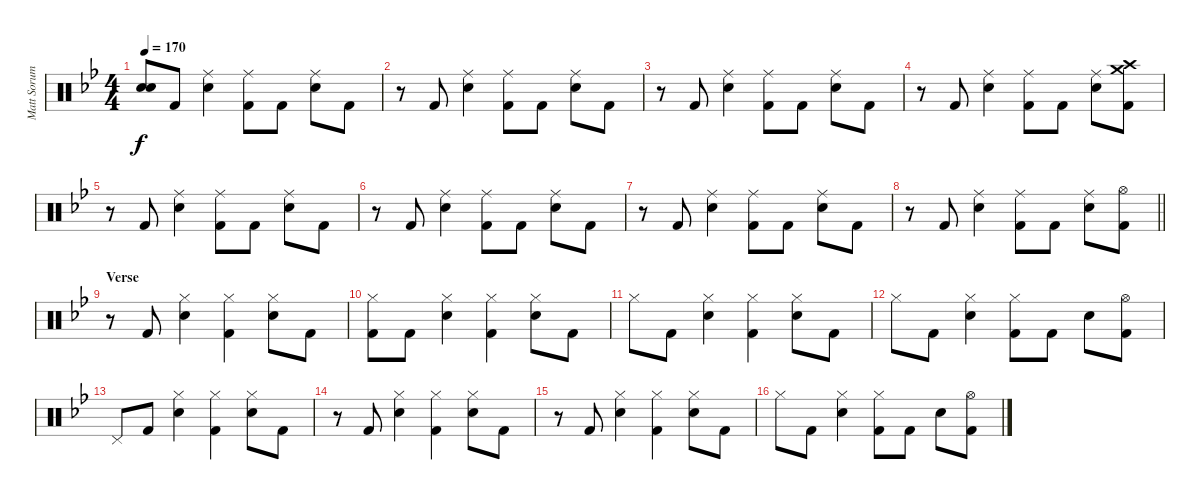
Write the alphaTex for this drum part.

\track ("Matt Sorum - Drums" "Matt Sorum") {instrument percussion}
\staff {score}
\articulation defaults
\ts (4 4)
\tempo 170
\clef neutral
\ks bb
("Snare (hit)"{t} "Snare (hit)"{t}).8{dy f} "Kick (hit) 2".8 ("Ride (middle)" "Snare (hit) 2").4 ("Ride (middle)" "Kick (hit) 2").8 "Kick (hit) 2".8 ("Ride (middle)" "Snare (hit) 2").8 "Kick (hit) 2".8 |
r.8 "Kick (hit) 2".8 ("Ride (middle)" "Snare (hit) 2").4 ("Ride (middle)" "Kick (hit) 2").8 "Kick (hit) 2".8 ("Ride (middle)" "Snare (hit) 2").8 "Kick (hit) 2".8 |
r.8 "Kick (hit) 2".8 ("Ride (middle)" "Snare (hit) 2").4 ("Ride (middle)" "Kick (hit) 2").8 "Kick (hit) 2".8 ("Ride (middle)" "Snare (hit) 2").8 "Kick (hit) 2".8 |
r.8 "Kick (hit) 2".8 ("Ride (middle)" "Snare (hit) 2").4 ("Ride (middle)" "Kick (hit) 2").8 "Kick (hit) 2".8 ("Ride (middle)" "Snare (hit) 2").8 ("Crash medium (hit)" "Crash high (hit)" "Kick (hit) 2").8 |
r.8 "Kick (hit) 2".8 ("Ride (middle)" "Snare (hit) 2").4 ("Ride (middle)" "Kick (hit) 2").8 "Kick (hit) 2".8 ("Ride (middle)" "Snare (hit) 2").8 "Kick (hit) 2".8 |
r.8 "Kick (hit) 2".8 ("Ride (middle)" "Snare (hit) 2").4 ("Ride (middle)" "Kick (hit) 2").8 "Kick (hit) 2".8 ("Ride (middle)" "Snare (hit) 2").8 "Kick (hit) 2".8 |
r.8 "Kick (hit) 2".8 ("Ride (middle)" "Snare (hit) 2").4 ("Ride (middle)" "Kick (hit) 2").8 "Kick (hit) 2".8 ("Ride (middle)" "Snare (hit) 2").8 "Kick (hit) 2".8 |
\barLineRight lightlight
r.8 "Kick (hit) 2".8 ("Ride (middle)" "Snare (hit) 2").4 ("Ride (middle)" "Kick (hit) 2").8 "Kick (hit) 2".8 ("Ride (middle)" "Snare (hit) 2").8 ("Hi-Hat (open)" "Kick (hit) 2").8 |
\section ("" "Verse")
r.8 "Kick (hit) 2".8 ("Hi-Hat (closed)" "Snare (hit) 2").4 ("Hi-Hat (closed)" "Kick (hit) 2").4 ("Hi-Hat (closed)" "Snare (hit) 2").8 "Kick (hit) 2".8 |
("Hi-Hat (closed)" "Kick (hit) 2").8 "Kick (hit) 2".8 ("Hi-Hat (closed)" "Snare (hit) 2").4 ("Hi-Hat (closed)" "Kick (hit) 2").4 ("Hi-Hat (closed)" "Snare (hit) 2").8 "Kick (hit) 2".8 |
"Hi-Hat (closed)".8 "Kick (hit) 2".8 ("Hi-Hat (closed)" "Snare (hit) 2").4 ("Hi-Hat (closed)" "Kick (hit) 2").4 ("Hi-Hat (closed)" "Snare (hit) 2").8 "Kick (hit) 2".8 |
"Hi-Hat (closed)".8 "Kick (hit) 2".8 ("Hi-Hat (closed)" "Snare (hit) 2").4 ("Hi-Hat (closed)" "Kick (hit) 2").8 "Kick (hit) 2".8 "Snare (hit) 2".8 ("Hi-Hat (open)" "Kick (hit) 2").8 |
"Pedal Hi-Hat (hit)".8 "Kick (hit) 2".8 ("Hi-Hat (closed)" "Snare (hit) 2").4 ("Hi-Hat (closed)" "Kick (hit) 2").4 ("Hi-Hat (closed)" "Snare (hit) 2").8 "Kick (hit) 2".8 |
r.8 "Kick (hit) 2".8 ("Hi-Hat (closed)" "Snare (hit) 2").4 ("Hi-Hat (closed)" "Kick (hit) 2").4 ("Hi-Hat (closed)" "Snare (hit) 2").8 "Kick (hit) 2".8 |
r.8 "Kick (hit) 2".8 ("Hi-Hat (closed)" "Snare (hit) 2").4 ("Hi-Hat (closed)" "Kick (hit) 2").4 ("Hi-Hat (closed)" "Snare (hit) 2").8 "Kick (hit) 2".8 |
"Hi-Hat (closed)".8 "Kick (hit) 2".8 ("Hi-Hat (closed)" "Snare (hit) 2").4 ("Hi-Hat (closed)" "Kick (hit) 2").8 "Kick (hit) 2".8 "Snare (hit) 2".8 ("Hi-Hat (open)" "Kick (hit) 2").8
